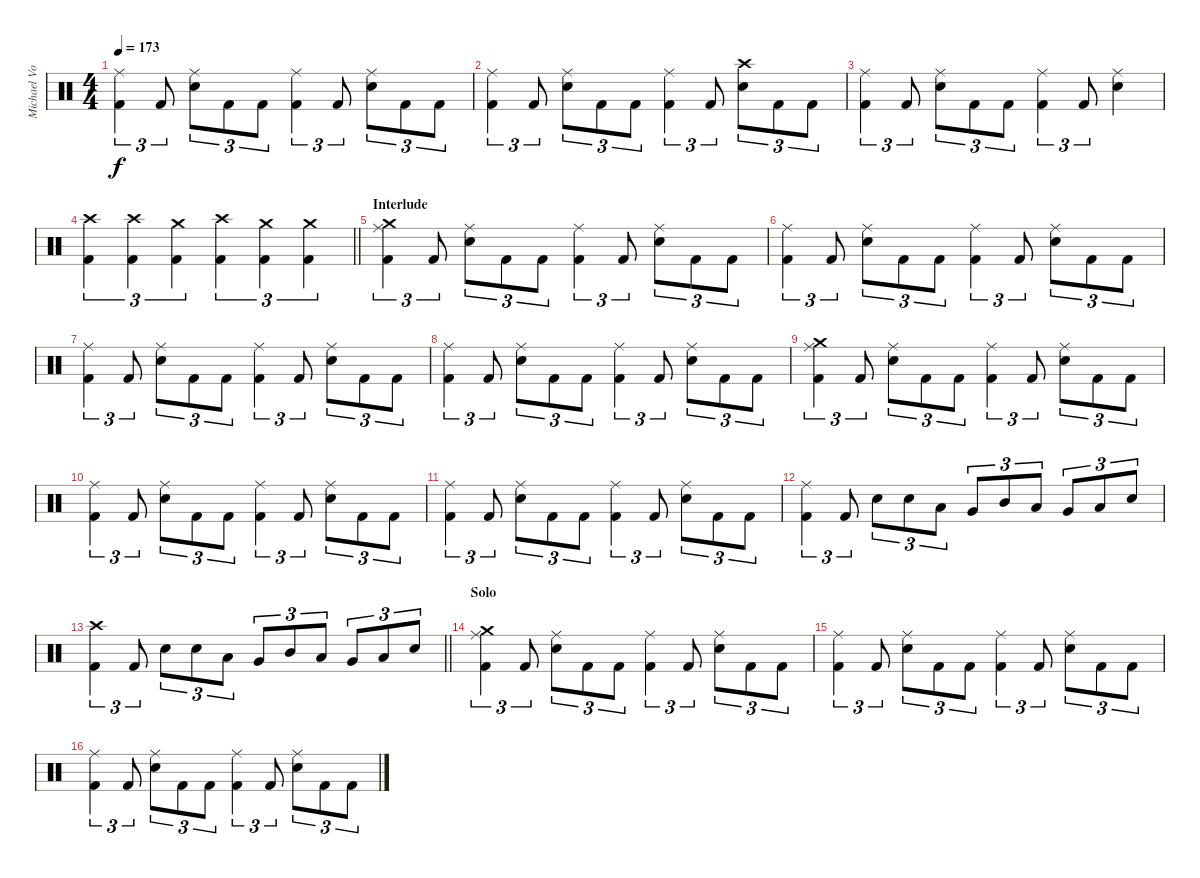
\track ("Michael Von Knorring " "Michael Vo") {instrument percussion}
\staff {score}
\articulation defaults
\ts (4 4)
\tempo 173
\clef neutral
\ks c
("Ride (middle)" "Kick (hit) 2").4{tu (3 2) dy f} "Kick (hit) 2".8{tu (3 2)} ("Ride (middle)" "Snare (hit) 2").8{tu (3 2)} "Kick (hit) 2".8{tu (3 2)} "Kick (hit) 2".8{tu (3 2)} ("Ride (middle)" "Kick (hit) 2").4{tu (3 2)} "Kick (hit) 2".8{tu (3 2)} ("Ride (middle)" "Snare (hit) 2").8{tu (3 2)} "Kick (hit) 2".8{tu (3 2)} "Kick (hit) 2".8{tu (3 2)} |
("Ride (middle)" "Kick (hit) 2").4{tu (3 2)} "Kick (hit) 2".8{tu (3 2)} ("Ride (middle)" "Snare (hit) 2").8{tu (3 2)} "Kick (hit) 2".8{tu (3 2)} "Kick (hit) 2".8{tu (3 2)} ("Ride (middle)" "Kick (hit) 2").4{tu (3 2)} "Kick (hit) 2".8{tu (3 2)} ("Crash high (hit)" "Snare (hit) 2").8{tu (3 2)} "Kick (hit) 2".8{tu (3 2)} "Kick (hit) 2".8{tu (3 2)} |
("Ride (middle)" "Kick (hit) 2").4{tu (3 2)} "Kick (hit) 2".8{tu (3 2)} ("Ride (middle)" "Snare (hit) 2").8{tu (3 2)} "Kick (hit) 2".8{tu (3 2)} "Kick (hit) 2".8{tu (3 2)} ("Ride (middle)" "Kick (hit) 2").4{tu (3 2)} "Kick (hit) 2".8{tu (3 2)} ("Ride (middle)" "Snare (hit) 2").4 |
\barLineRight lightlight
("Crash high (hit)" "Kick (hit) 2").4{tu (3 2)} ("Crash high (hit)" "Kick (hit) 2").4{tu (3 2)} ("Crash medium (hit)" "Kick (hit) 2").4{tu (3 2)} ("Crash high (hit)" "Kick (hit) 2").4{tu (3 2)} ("Crash medium (hit)" "Kick (hit) 2").4{tu (3 2)} ("Crash medium (hit)" "Kick (hit) 2").4{tu (3 2)} |
\section ("" "Interlude")
("Crash medium (hit)" "Ride (middle)" "Kick (hit) 2").4{tu (3 2)} "Kick (hit) 2".8{tu (3 2)} ("Ride (middle)" "Snare (hit) 2").8{tu (3 2)} "Kick (hit) 2".8{tu (3 2)} "Kick (hit) 2".8{tu (3 2)} ("Ride (middle)" "Kick (hit) 2").4{tu (3 2)} "Kick (hit) 2".8{tu (3 2)} ("Ride (middle)" "Snare (hit) 2").8{tu (3 2)} "Kick (hit) 2".8{tu (3 2)} "Kick (hit) 2".8{tu (3 2)} |
("Ride (middle)" "Kick (hit) 2").4{tu (3 2)} "Kick (hit) 2".8{tu (3 2)} ("Ride (middle)" "Snare (hit) 2").8{tu (3 2)} "Kick (hit) 2".8{tu (3 2)} "Kick (hit) 2".8{tu (3 2)} ("Ride (middle)" "Kick (hit) 2").4{tu (3 2)} "Kick (hit) 2".8{tu (3 2)} ("Ride (middle)" "Snare (hit) 2").8{tu (3 2)} "Kick (hit) 2".8{tu (3 2)} "Kick (hit) 2".8{tu (3 2)} |
("Ride (middle)" "Kick (hit) 2").4{tu (3 2)} "Kick (hit) 2".8{tu (3 2)} ("Ride (middle)" "Snare (hit) 2").8{tu (3 2)} "Kick (hit) 2".8{tu (3 2)} "Kick (hit) 2".8{tu (3 2)} ("Ride (middle)" "Kick (hit) 2").4{tu (3 2)} "Kick (hit) 2".8{tu (3 2)} ("Ride (middle)" "Snare (hit) 2").8{tu (3 2)} "Kick (hit) 2".8{tu (3 2)} "Kick (hit) 2".8{tu (3 2)} |
("Ride (middle)" "Kick (hit) 2").4{tu (3 2)} "Kick (hit) 2".8{tu (3 2)} ("Ride (middle)" "Snare (hit) 2").8{tu (3 2)} "Kick (hit) 2".8{tu (3 2)} "Kick (hit) 2".8{tu (3 2)} ("Ride (middle)" "Kick (hit) 2").4{tu (3 2)} "Kick (hit) 2".8{tu (3 2)} ("Ride (middle)" "Snare (hit) 2").8{tu (3 2)} "Kick (hit) 2".8{tu (3 2)} "Kick (hit) 2".8{tu (3 2)} |
("Crash medium (hit)" "Ride (middle)" "Kick (hit) 2").4{tu (3 2)} "Kick (hit) 2".8{tu (3 2)} ("Ride (middle)" "Snare (hit) 2").8{tu (3 2)} "Kick (hit) 2".8{tu (3 2)} "Kick (hit) 2".8{tu (3 2)} ("Ride (middle)" "Kick (hit) 2").4{tu (3 2)} "Kick (hit) 2".8{tu (3 2)} ("Ride (middle)" "Snare (hit) 2").8{tu (3 2)} "Kick (hit) 2".8{tu (3 2)} "Kick (hit) 2".8{tu (3 2)} |
("Ride (middle)" "Kick (hit) 2").4{tu (3 2)} "Kick (hit) 2".8{tu (3 2)} ("Ride (middle)" "Snare (hit) 2").8{tu (3 2)} "Kick (hit) 2".8{tu (3 2)} "Kick (hit) 2".8{tu (3 2)} ("Ride (middle)" "Kick (hit) 2").4{tu (3 2)} "Kick (hit) 2".8{tu (3 2)} ("Ride (middle)" "Snare (hit) 2").8{tu (3 2)} "Kick (hit) 2".8{tu (3 2)} "Kick (hit) 2".8{tu (3 2)} |
("Ride (middle)" "Kick (hit) 2").4{tu (3 2)} "Kick (hit) 2".8{tu (3 2)} ("Ride (middle)" "Snare (hit) 2").8{tu (3 2)} "Kick (hit) 2".8{tu (3 2)} "Kick (hit) 2".8{tu (3 2)} ("Ride (middle)" "Kick (hit) 2").4{tu (3 2)} "Kick (hit) 2".8{tu (3 2)} ("Ride (middle)" "Snare (hit) 2").8{tu (3 2)} "Kick (hit) 2".8{tu (3 2)} "Kick (hit) 2".8{tu (3 2)} |
("Ride (middle)" "Kick (hit) 2").4{tu (3 2)} "Kick (hit) 2".8{tu (3 2)} "Snare (hit) 2".8{tu (3 2)} "Snare (hit) 2".8{tu (3 2)} "Low Tom (hit)".8{tu (3 2)} "Very Low Tom (hit)".8{tu (3 2)} "Mid Tom (hit)".8{tu (3 2)} "Low Tom (hit)".8{tu (3 2)} "Very Low Tom (hit)".8{tu (3 2)} "Low Floor Tom (hit)".8{tu (3 2)} "Snare (hit) 2".8{tu (3 2)} |
\barLineRight lightlight
("Crash high (hit)" "Kick (hit) 2").4{tu (3 2)} "Kick (hit) 2".8{tu (3 2)} "Snare (hit) 2".8{tu (3 2)} "Snare (hit) 2".8{tu (3 2)} "Low Tom (hit)".8{tu (3 2)} "Very Low Tom (hit)".8{tu (3 2)} "Mid Tom (hit)".8{tu (3 2)} "Low Tom (hit)".8{tu (3 2)} "Very Low Tom (hit)".8{tu (3 2)} "Low Floor Tom (hit)".8{tu (3 2)} "Snare (hit) 2".8{tu (3 2)} |
\section ("" "Solo")
("Crash medium (hit)" "Ride (middle)" "Kick (hit) 2").4{tu (3 2)} "Kick (hit) 2".8{tu (3 2)} ("Ride (middle)" "Snare (hit) 2").8{tu (3 2)} "Kick (hit) 2".8{tu (3 2)} "Kick (hit) 2".8{tu (3 2)} ("Ride (middle)" "Kick (hit) 2").4{tu (3 2)} "Kick (hit) 2".8{tu (3 2)} ("Ride (middle)" "Snare (hit) 2").8{tu (3 2)} "Kick (hit) 2".8{tu (3 2)} "Kick (hit) 2".8{tu (3 2)} |
("Ride (middle)" "Kick (hit) 2").4{tu (3 2)} "Kick (hit) 2".8{tu (3 2)} ("Ride (middle)" "Snare (hit) 2").8{tu (3 2)} "Kick (hit) 2".8{tu (3 2)} "Kick (hit) 2".8{tu (3 2)} ("Ride (middle)" "Kick (hit) 2").4{tu (3 2)} "Kick (hit) 2".8{tu (3 2)} ("Ride (middle)" "Snare (hit) 2").8{tu (3 2)} "Kick (hit) 2".8{tu (3 2)} "Kick (hit) 2".8{tu (3 2)} |
("Ride (middle)" "Kick (hit) 2").4{tu (3 2)} "Kick (hit) 2".8{tu (3 2)} ("Ride (middle)" "Snare (hit) 2").8{tu (3 2)} "Kick (hit) 2".8{tu (3 2)} "Kick (hit) 2".8{tu (3 2)} ("Ride (middle)" "Kick (hit) 2").4{tu (3 2)} "Kick (hit) 2".8{tu (3 2)} ("Ride (middle)" "Snare (hit) 2").8{tu (3 2)} "Kick (hit) 2".8{tu (3 2)} "Kick (hit) 2".8{tu (3 2)}
